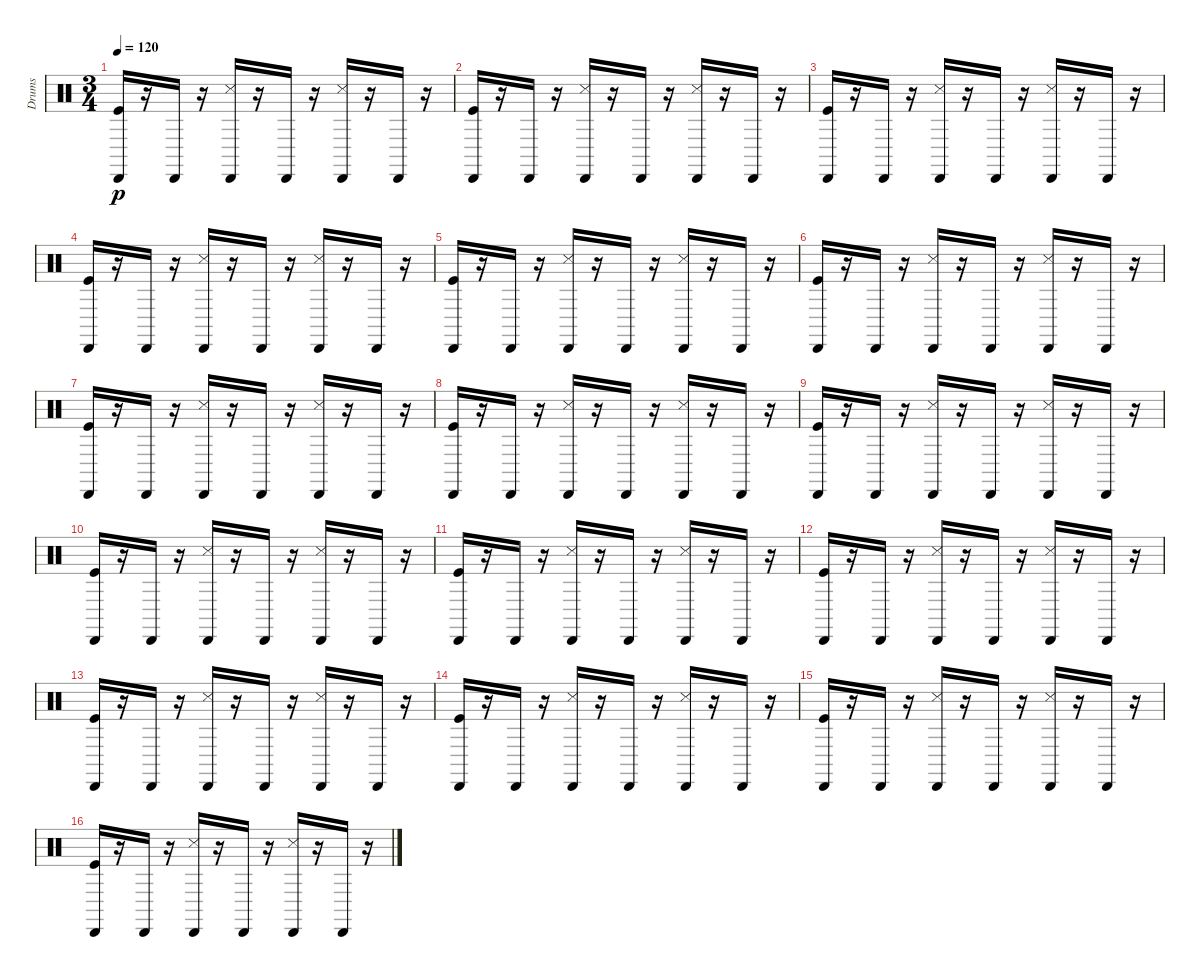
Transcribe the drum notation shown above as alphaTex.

\track ("Drums" "Drums") {instrument percussion}
\staff {score}
\articulation defaults
\ts (3 4)
\tempo 120
\clef neutral
\ks c
("Kick (hit)" "Cabasa (hit)").16{dy p} r.16 "Cabasa (hit)".16 r.16 ("Snare (side stick) 3" "Cabasa (hit)").16 r.16 "Cabasa (hit)".16 r.16 ("Snare (side stick) 3" "Cabasa (hit)").16 r.16 "Cabasa (hit)".16 r.16 |
("Kick (hit)" "Cabasa (hit)").16 r.16 "Cabasa (hit)".16 r.16 ("Snare (side stick) 3" "Cabasa (hit)").16 r.16 "Cabasa (hit)".16 r.16 ("Snare (side stick) 3" "Cabasa (hit)").16 r.16 "Cabasa (hit)".16 r.16 |
("Kick (hit)" "Cabasa (hit)").16 r.16 "Cabasa (hit)".16 r.16 ("Snare (side stick) 3" "Cabasa (hit)").16 r.16 "Cabasa (hit)".16 r.16 ("Snare (side stick) 3" "Cabasa (hit)").16 r.16 "Cabasa (hit)".16 r.16 |
("Kick (hit)" "Cabasa (hit)").16 r.16 "Cabasa (hit)".16 r.16 ("Snare (side stick) 3" "Cabasa (hit)").16 r.16 "Cabasa (hit)".16 r.16 ("Snare (side stick) 3" "Cabasa (hit)").16 r.16 "Cabasa (hit)".16 r.16 |
("Kick (hit)" "Cabasa (hit)").16 r.16 "Cabasa (hit)".16 r.16 ("Snare (side stick) 3" "Cabasa (hit)").16 r.16 "Cabasa (hit)".16 r.16 ("Snare (side stick) 3" "Cabasa (hit)").16 r.16 "Cabasa (hit)".16 r.16 |
("Kick (hit)" "Cabasa (hit)").16 r.16 "Cabasa (hit)".16 r.16 ("Snare (side stick) 3" "Cabasa (hit)").16 r.16 "Cabasa (hit)".16 r.16 ("Snare (side stick) 3" "Cabasa (hit)").16 r.16 "Cabasa (hit)".16 r.16 |
("Kick (hit)" "Cabasa (hit)").16 r.16 "Cabasa (hit)".16 r.16 ("Snare (side stick) 3" "Cabasa (hit)").16 r.16 "Cabasa (hit)".16 r.16 ("Snare (side stick) 3" "Cabasa (hit)").16 r.16 "Cabasa (hit)".16 r.16 |
("Kick (hit)" "Cabasa (hit)").16 r.16 "Cabasa (hit)".16 r.16 ("Snare (side stick) 3" "Cabasa (hit)").16 r.16 "Cabasa (hit)".16 r.16 ("Snare (side stick) 3" "Cabasa (hit)").16 r.16 "Cabasa (hit)".16 r.16 |
("Kick (hit)" "Cabasa (hit)").16 r.16 "Cabasa (hit)".16 r.16 ("Snare (side stick) 3" "Cabasa (hit)").16 r.16 "Cabasa (hit)".16 r.16 ("Snare (side stick) 3" "Cabasa (hit)").16 r.16 "Cabasa (hit)".16 r.16 |
("Kick (hit)" "Cabasa (hit)").16 r.16 "Cabasa (hit)".16 r.16 ("Snare (side stick) 3" "Cabasa (hit)").16 r.16 "Cabasa (hit)".16 r.16 ("Snare (side stick) 3" "Cabasa (hit)").16 r.16 "Cabasa (hit)".16 r.16 |
("Kick (hit)" "Cabasa (hit)").16 r.16 "Cabasa (hit)".16 r.16 ("Snare (side stick) 3" "Cabasa (hit)").16 r.16 "Cabasa (hit)".16 r.16 ("Snare (side stick) 3" "Cabasa (hit)").16 r.16 "Cabasa (hit)".16 r.16 |
("Kick (hit)" "Cabasa (hit)").16 r.16 "Cabasa (hit)".16 r.16 ("Snare (side stick) 3" "Cabasa (hit)").16 r.16 "Cabasa (hit)".16 r.16 ("Snare (side stick) 3" "Cabasa (hit)").16 r.16 "Cabasa (hit)".16 r.16 |
("Kick (hit)" "Cabasa (hit)").16 r.16 "Cabasa (hit)".16 r.16 ("Snare (side stick) 3" "Cabasa (hit)").16 r.16 "Cabasa (hit)".16 r.16 ("Snare (side stick) 3" "Cabasa (hit)").16 r.16 "Cabasa (hit)".16 r.16 |
("Kick (hit)" "Cabasa (hit)").16 r.16 "Cabasa (hit)".16 r.16 ("Snare (side stick) 3" "Cabasa (hit)").16 r.16 "Cabasa (hit)".16 r.16 ("Snare (side stick) 3" "Cabasa (hit)").16 r.16 "Cabasa (hit)".16 r.16 |
("Kick (hit)" "Cabasa (hit)").16 r.16 "Cabasa (hit)".16 r.16 ("Snare (side stick) 3" "Cabasa (hit)").16 r.16 "Cabasa (hit)".16 r.16 ("Snare (side stick) 3" "Cabasa (hit)").16 r.16 "Cabasa (hit)".16 r.16 |
("Kick (hit)" "Cabasa (hit)").16 r.16 "Cabasa (hit)".16 r.16 ("Snare (side stick) 3" "Cabasa (hit)").16 r.16 "Cabasa (hit)".16 r.16 ("Snare (side stick) 3" "Cabasa (hit)").16 r.16 "Cabasa (hit)".16 r.16
